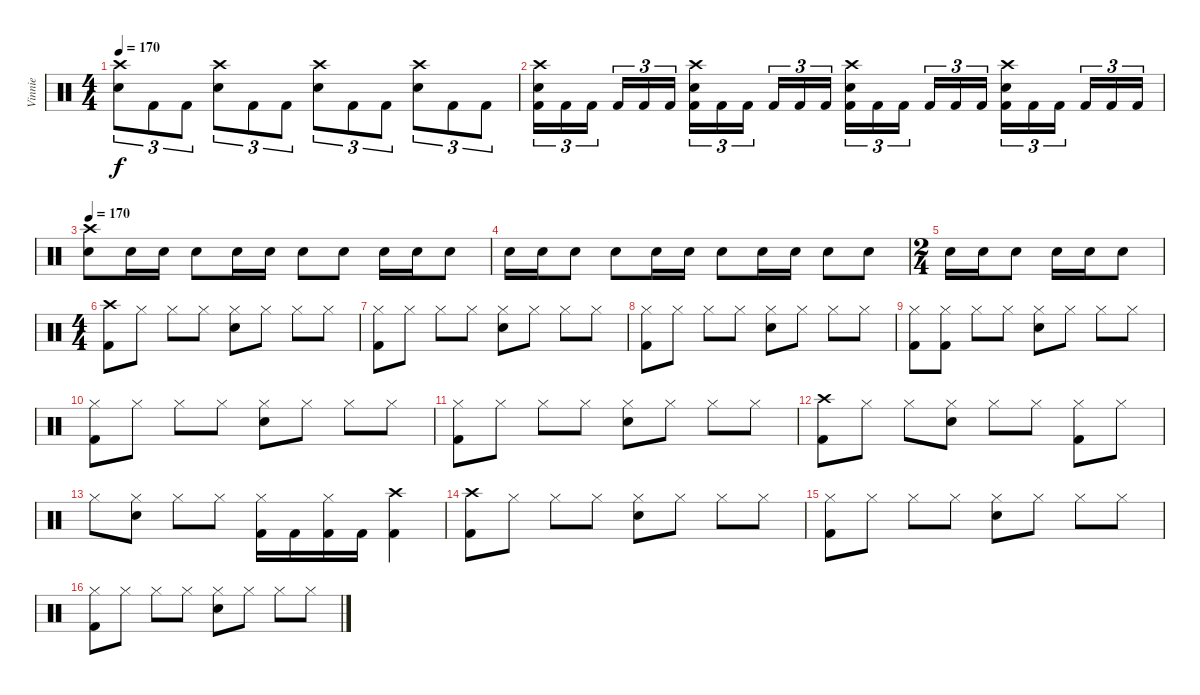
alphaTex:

\track ("Vinnie" "Vinnie") {instrument percussion}
\staff {score}
\articulation defaults
\ts (4 4)
\tempo 170
\tempo 120
\tempo 170
\clef neutral
\ks c
("Crash high (hit)" "Electric Snare (hit)").8{tu (3 2) dy f} "Kick (hit) 2".8{tu (3 2)} "Kick (hit) 2".8{tu (3 2)} ("Crash high (hit)" "Electric Snare (hit)").8{tu (3 2)} "Kick (hit) 2".8{tu (3 2)} "Kick (hit) 2".8{tu (3 2)} ("Crash high (hit)" "Electric Snare (hit)").8{tu (3 2)} "Kick (hit) 2".8{tu (3 2)} "Kick (hit) 2".8{tu (3 2)} ("Crash high (hit)" "Electric Snare (hit)").8{tu (3 2)} "Kick (hit) 2".8{tu (3 2)} "Kick (hit) 2".8{tu (3 2)} |
("Crash high (hit)" "Electric Snare (hit)" "Kick (hit) 2").16{tu (3 2)} "Kick (hit) 2".16{tu (3 2)} "Kick (hit) 2".16{tu (3 2)} "Kick (hit) 2".16{tu (3 2)} "Kick (hit) 2".16{tu (3 2)} "Kick (hit) 2".16{tu (3 2)} ("Crash high (hit)" "Electric Snare (hit)" "Kick (hit) 2").16{tu (3 2)} "Kick (hit) 2".16{tu (3 2)} "Kick (hit) 2".16{tu (3 2)} "Kick (hit) 2".16{tu (3 2)} "Kick (hit) 2".16{tu (3 2)} "Kick (hit) 2".16{tu (3 2)} ("Crash high (hit)" "Electric Snare (hit)" "Kick (hit) 2").16{tu (3 2)} "Kick (hit) 2".16{tu (3 2)} "Kick (hit) 2".16{tu (3 2)} "Kick (hit) 2".16{tu (3 2)} "Kick (hit) 2".16{tu (3 2)} "Kick (hit) 2".16{tu (3 2)} ("Crash high (hit)" "Electric Snare (hit)" "Kick (hit) 2").16{tu (3 2)} "Kick (hit) 2".16{tu (3 2)} "Kick (hit) 2".16{tu (3 2)} "Kick (hit) 2".16{tu (3 2)} "Kick (hit) 2".16{tu (3 2)} "Kick (hit) 2".16{tu (3 2)} |
\tempo 170
("Crash high (hit)" "Electric Snare (hit)").8 "Electric Snare (hit)".16 "Electric Snare (hit)".16 "Electric Snare (hit)".8 "Electric Snare (hit)".16 "Electric Snare (hit)".16 "Electric Snare (hit)".8 "Electric Snare (hit)".8 "Electric Snare (hit)".16 "Electric Snare (hit)".16 "Electric Snare (hit)".8 |
"Electric Snare (hit)".16 "Electric Snare (hit)".16 "Electric Snare (hit)".8 "Electric Snare (hit)".8 "Electric Snare (hit)".16 "Electric Snare (hit)".16 "Electric Snare (hit)".8 "Electric Snare (hit)".16 "Electric Snare (hit)".16 "Electric Snare (hit)".8 "Electric Snare (hit)".8 |
\ts (2 4)
"Electric Snare (hit)".16 "Electric Snare (hit)".16 "Electric Snare (hit)".8 "Electric Snare (hit)".16 "Electric Snare (hit)".16 "Electric Snare (hit)".8 |
\ts (4 4)
("Crash high (hit)" "Kick (hit) 2").8 "Hi-Hat (closed)".8 "Hi-Hat (closed)".8 "Hi-Hat (closed)".8 ("Hi-Hat (closed)" "Electric Snare (hit)").8 "Hi-Hat (closed)".8 "Hi-Hat (closed)".8 "Hi-Hat (closed)".8 |
("Hi-Hat (closed)" "Kick (hit) 2").8 "Hi-Hat (closed)".8 "Hi-Hat (closed)".8 "Hi-Hat (closed)".8 ("Hi-Hat (closed)" "Electric Snare (hit)").8 "Hi-Hat (closed)".8 "Hi-Hat (closed)".8 "Hi-Hat (closed)".8 |
("Hi-Hat (closed)" "Kick (hit) 2").8 "Hi-Hat (closed)".8 "Hi-Hat (closed)".8 "Hi-Hat (closed)".8 ("Hi-Hat (closed)" "Electric Snare (hit)").8 "Hi-Hat (closed)".8 "Hi-Hat (closed)".8 "Hi-Hat (closed)".8 |
("Hi-Hat (closed)" "Kick (hit) 2").8 ("Hi-Hat (closed)" "Kick (hit) 2").8 "Hi-Hat (closed)".8 "Hi-Hat (closed)".8 ("Hi-Hat (closed)" "Electric Snare (hit)").8 "Hi-Hat (closed)".8 "Hi-Hat (closed)".8 "Hi-Hat (closed)".8 |
("Hi-Hat (closed)" "Kick (hit) 2").8 "Hi-Hat (closed)".8 "Hi-Hat (closed)".8 "Hi-Hat (closed)".8 ("Hi-Hat (closed)" "Electric Snare (hit)").8 "Hi-Hat (closed)".8 "Hi-Hat (closed)".8 "Hi-Hat (closed)".8 |
("Hi-Hat (closed)" "Kick (hit) 2").8 "Hi-Hat (closed)".8 "Hi-Hat (closed)".8 "Hi-Hat (closed)".8 ("Hi-Hat (closed)" "Electric Snare (hit)").8 "Hi-Hat (closed)".8 "Hi-Hat (closed)".8 "Hi-Hat (closed)".8 |
("Crash high (hit)" "Kick (hit) 2").8 "Hi-Hat (closed)".8 "Hi-Hat (closed)".8 ("Hi-Hat (closed)" "Electric Snare (hit)").8 "Hi-Hat (closed)".8 "Hi-Hat (closed)".8 ("Hi-Hat (closed)" "Kick (hit) 2").8 "Hi-Hat (closed)".8 |
"Hi-Hat (closed)".8 ("Hi-Hat (closed)" "Electric Snare (hit)").8 "Hi-Hat (closed)".8 "Hi-Hat (closed)".8 ("Hi-Hat (closed)" "Kick (hit) 2").16 "Kick (hit) 2".16 ("Hi-Hat (closed)" "Kick (hit) 2").16 "Kick (hit) 2".16 ("Crash high (hit)" "Kick (hit) 2").4 |
("Crash high (hit)" "Kick (hit) 2").8 "Hi-Hat (closed)".8 "Hi-Hat (closed)".8 "Hi-Hat (closed)".8 ("Hi-Hat (closed)" "Electric Snare (hit)").8 "Hi-Hat (closed)".8 "Hi-Hat (closed)".8 "Hi-Hat (closed)".8 |
("Hi-Hat (closed)" "Kick (hit) 2").8 "Hi-Hat (closed)".8 "Hi-Hat (closed)".8 "Hi-Hat (closed)".8 ("Hi-Hat (closed)" "Electric Snare (hit)").8 "Hi-Hat (closed)".8 "Hi-Hat (closed)".8 "Hi-Hat (closed)".8 |
("Hi-Hat (closed)" "Kick (hit) 2").8 "Hi-Hat (closed)".8 "Hi-Hat (closed)".8 "Hi-Hat (closed)".8 ("Hi-Hat (closed)" "Electric Snare (hit)").8 "Hi-Hat (closed)".8 "Hi-Hat (closed)".8 "Hi-Hat (closed)".8
